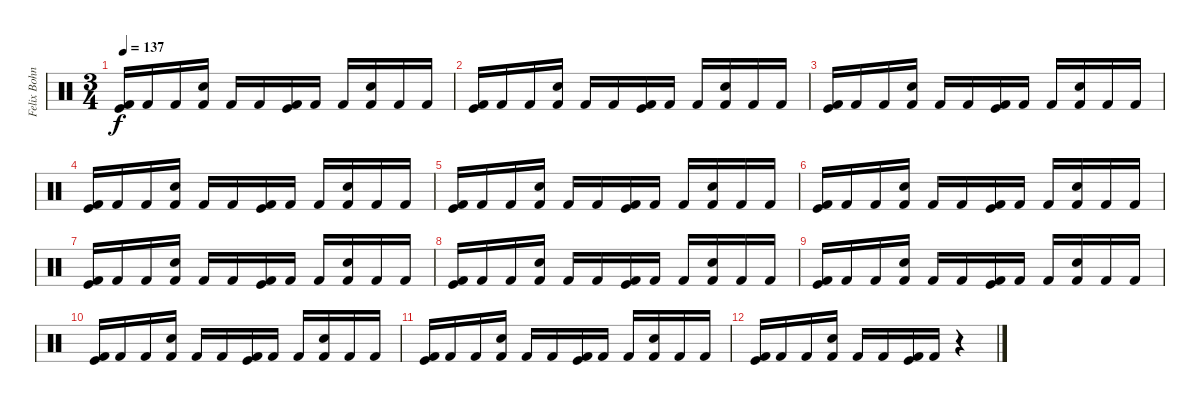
\track ("Felix Bohnke - Drums" "Felix Bohn") {instrument percussion}
\staff {score}
\articulation defaults
\ts (3 4)
\tempo 137
\clef neutral
\ks c
("Kick (hit)" "Kick (hit) 2").16{dy f} "Kick (hit) 2".16 "Kick (hit) 2".16 ("Snare (hit) 2" "Kick (hit) 2").16 "Kick (hit) 2".16 "Kick (hit) 2".16 ("Kick (hit)" "Kick (hit) 2").16 "Kick (hit) 2".16 "Kick (hit) 2".16 ("Snare (hit) 2" "Kick (hit) 2").16 "Kick (hit) 2".16 "Kick (hit) 2".16 |
("Kick (hit)" "Kick (hit) 2").16 "Kick (hit) 2".16 "Kick (hit) 2".16 ("Snare (hit) 2" "Kick (hit) 2").16 "Kick (hit) 2".16 "Kick (hit) 2".16 ("Kick (hit)" "Kick (hit) 2").16 "Kick (hit) 2".16 "Kick (hit) 2".16 ("Snare (hit) 2" "Kick (hit) 2").16 "Kick (hit) 2".16 "Kick (hit) 2".16 |
("Kick (hit)" "Kick (hit) 2").16 "Kick (hit) 2".16 "Kick (hit) 2".16 ("Snare (hit) 2" "Kick (hit) 2").16 "Kick (hit) 2".16 "Kick (hit) 2".16 ("Kick (hit)" "Kick (hit) 2").16 "Kick (hit) 2".16 "Kick (hit) 2".16 ("Snare (hit) 2" "Kick (hit) 2").16 "Kick (hit) 2".16 "Kick (hit) 2".16 |
("Kick (hit)" "Kick (hit) 2").16 "Kick (hit) 2".16 "Kick (hit) 2".16 ("Snare (hit) 2" "Kick (hit) 2").16 "Kick (hit) 2".16 "Kick (hit) 2".16 ("Kick (hit)" "Kick (hit) 2").16 "Kick (hit) 2".16 "Kick (hit) 2".16 ("Snare (hit) 2" "Kick (hit) 2").16 "Kick (hit) 2".16 "Kick (hit) 2".16 |
("Kick (hit)" "Kick (hit) 2").16 "Kick (hit) 2".16 "Kick (hit) 2".16 ("Snare (hit) 2" "Kick (hit) 2").16 "Kick (hit) 2".16 "Kick (hit) 2".16 ("Kick (hit)" "Kick (hit) 2").16 "Kick (hit) 2".16 "Kick (hit) 2".16 ("Snare (hit) 2" "Kick (hit) 2").16 "Kick (hit) 2".16 "Kick (hit) 2".16 |
("Kick (hit)" "Kick (hit) 2").16 "Kick (hit) 2".16 "Kick (hit) 2".16 ("Snare (hit) 2" "Kick (hit) 2").16 "Kick (hit) 2".16 "Kick (hit) 2".16 ("Kick (hit)" "Kick (hit) 2").16 "Kick (hit) 2".16 "Kick (hit) 2".16 ("Snare (hit) 2" "Kick (hit) 2").16 "Kick (hit) 2".16 "Kick (hit) 2".16 |
("Kick (hit)" "Kick (hit) 2").16 "Kick (hit) 2".16 "Kick (hit) 2".16 ("Snare (hit) 2" "Kick (hit) 2").16 "Kick (hit) 2".16 "Kick (hit) 2".16 ("Kick (hit)" "Kick (hit) 2").16 "Kick (hit) 2".16 "Kick (hit) 2".16 ("Snare (hit) 2" "Kick (hit) 2").16 "Kick (hit) 2".16 "Kick (hit) 2".16 |
("Kick (hit)" "Kick (hit) 2").16 "Kick (hit) 2".16 "Kick (hit) 2".16 ("Snare (hit) 2" "Kick (hit) 2").16 "Kick (hit) 2".16 "Kick (hit) 2".16 ("Kick (hit)" "Kick (hit) 2").16 "Kick (hit) 2".16 "Kick (hit) 2".16 ("Snare (hit) 2" "Kick (hit) 2").16 "Kick (hit) 2".16 "Kick (hit) 2".16 |
("Kick (hit)" "Kick (hit) 2").16 "Kick (hit) 2".16 "Kick (hit) 2".16 ("Snare (hit) 2" "Kick (hit) 2").16 "Kick (hit) 2".16 "Kick (hit) 2".16 ("Kick (hit)" "Kick (hit) 2").16 "Kick (hit) 2".16 "Kick (hit) 2".16 ("Snare (hit) 2" "Kick (hit) 2").16 "Kick (hit) 2".16 "Kick (hit) 2".16 |
("Kick (hit)" "Kick (hit) 2").16 "Kick (hit) 2".16 "Kick (hit) 2".16 ("Snare (hit) 2" "Kick (hit) 2").16 "Kick (hit) 2".16 "Kick (hit) 2".16 ("Kick (hit)" "Kick (hit) 2").16 "Kick (hit) 2".16 "Kick (hit) 2".16 ("Snare (hit) 2" "Kick (hit) 2").16 "Kick (hit) 2".16 "Kick (hit) 2".16 |
("Kick (hit)" "Kick (hit) 2").16 "Kick (hit) 2".16 "Kick (hit) 2".16 ("Snare (hit) 2" "Kick (hit) 2").16 "Kick (hit) 2".16 "Kick (hit) 2".16 ("Kick (hit)" "Kick (hit) 2").16 "Kick (hit) 2".16 "Kick (hit) 2".16 ("Snare (hit) 2" "Kick (hit) 2").16 "Kick (hit) 2".16 "Kick (hit) 2".16 |
("Kick (hit)" "Kick (hit) 2").16 "Kick (hit) 2".16 "Kick (hit) 2".16 ("Snare (hit) 2" "Kick (hit) 2").16 "Kick (hit) 2".16 "Kick (hit) 2".16 ("Kick (hit)" "Kick (hit) 2").16 "Kick (hit) 2".16 r.4
